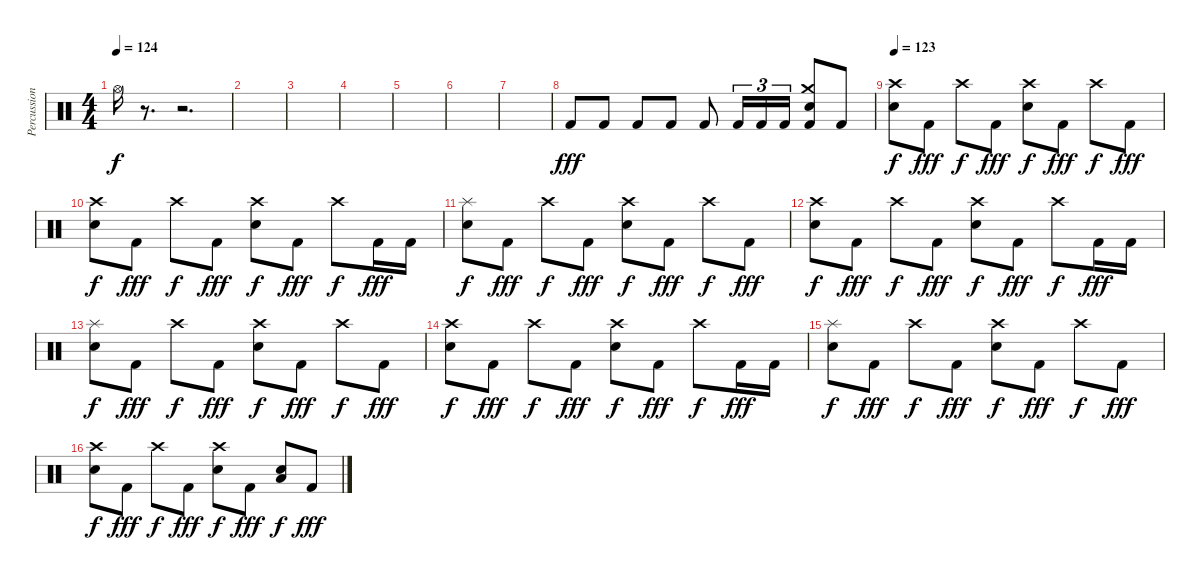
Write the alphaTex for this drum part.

\track ("Percussion" "Percussion") {instrument percussion}
\staff {score}
\articulation defaults
\ts (4 4)
\tempo 124
\clef neutral
\ks c "Hi-Hat (open)".16{dy f}
r.8{d} r.2{d} |
|
|
|
|
|
|
"Kick (hit) 2".8{dy fff} "Kick (hit) 2".8 "Kick (hit) 2".8 "Kick (hit) 2".8 "Kick (hit) 2".8 "Kick (hit) 2".16{tu (3 2)} "Kick (hit) 2".16{tu (3 2)} "Kick (hit) 2".16{tu (3 2)} ("Crash medium (hit)" "Snare (hit) 2" "Kick (hit) 2").8 "Kick (hit) 2".8 |
\tempo 123
("Crash high (hit)" "Snare (hit) 2").8{dy f} "Kick (hit) 2".8{dy fff} "Crash high (hit)".8{dy f} "Kick (hit) 2".8{dy fff} ("Crash high (hit)" "Snare (hit) 2").8{dy f} "Kick (hit) 2".8{dy fff} "Crash high (hit)".8{dy f} "Kick (hit) 2".8{dy fff} |
("Crash high (hit)" "Snare (hit) 2").8{dy f} "Kick (hit) 2".8{dy fff} "Crash high (hit)".8{dy f} "Kick (hit) 2".8{dy fff} ("Crash high (hit)" "Snare (hit) 2").8{dy f} "Kick (hit) 2".8{dy fff} "Crash high (hit)".8{dy f} "Kick (hit) 2".16{dy fff} "Kick (hit) 2".16 |
("Splash (hit)" "Snare (hit) 2").8{dy f} "Kick (hit) 2".8{dy fff} "Crash high (hit)".8{dy f} "Kick (hit) 2".8{dy fff} ("Crash high (hit)" "Snare (hit) 2").8{dy f} "Kick (hit) 2".8{dy fff} "Crash high (hit)".8{dy f} "Kick (hit) 2".8{dy fff} |
("Crash high (hit)" "Snare (hit) 2").8{dy f} "Kick (hit) 2".8{dy fff} "Crash high (hit)".8{dy f} "Kick (hit) 2".8{dy fff} ("Crash high (hit)" "Snare (hit) 2").8{dy f} "Kick (hit) 2".8{dy fff} "Crash high (hit)".8{dy f} "Kick (hit) 2".16{dy fff} "Kick (hit) 2".16 |
("Splash (hit)" "Snare (hit) 2").8{dy f} "Kick (hit) 2".8{dy fff} "Crash high (hit)".8{dy f} "Kick (hit) 2".8{dy fff} ("Crash high (hit)" "Snare (hit) 2").8{dy f} "Kick (hit) 2".8{dy fff} "Crash high (hit)".8{dy f} "Kick (hit) 2".8{dy fff} |
("Crash high (hit)" "Snare (hit) 2").8{dy f} "Kick (hit) 2".8{dy fff} "Crash high (hit)".8{dy f} "Kick (hit) 2".8{dy fff} ("Crash high (hit)" "Snare (hit) 2").8{dy f} "Kick (hit) 2".8{dy fff} "Crash high (hit)".8{dy f} "Kick (hit) 2".16{dy fff} "Kick (hit) 2".16 |
("Splash (hit)" "Snare (hit) 2").8{dy f} "Kick (hit) 2".8{dy fff} "Crash high (hit)".8{dy f} "Kick (hit) 2".8{dy fff} ("Crash high (hit)" "Snare (hit) 2").8{dy f} "Kick (hit) 2".8{dy fff} "Crash high (hit)".8{dy f} "Kick (hit) 2".8{dy fff} |
("Crash high (hit)" "Snare (hit) 2").8{dy f} "Kick (hit) 2".8{dy fff} "Crash high (hit)".8{dy f} "Kick (hit) 2".8{dy fff} ("Crash high (hit)" "Snare (hit) 2").8{dy f} "Kick (hit) 2".8{dy fff} ("Low Floor Tom (hit)" "Snare (hit) 2").8{dy f} "Kick (hit) 2".8{dy fff}
